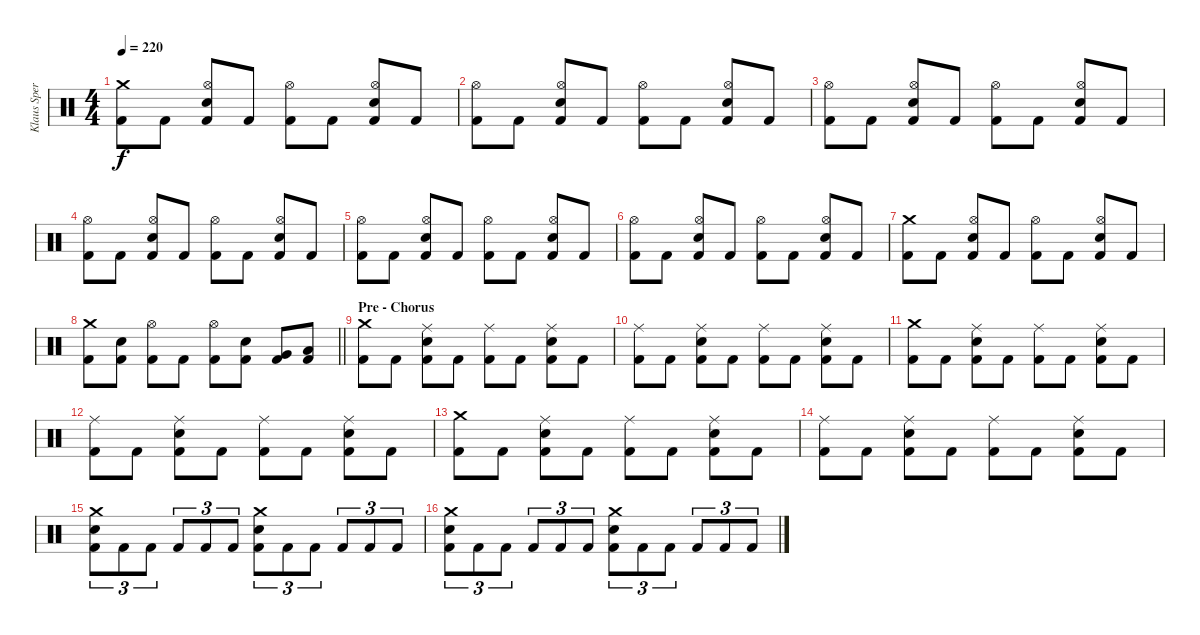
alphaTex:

\track ("Klaus Sperling" "Klaus Sper") {instrument percussion}
\staff {score}
\articulation defaults
\ts (4 4)
\tempo 220
\clef neutral
\ks c
("Crash medium (hit)" "Kick (hit) 2").8{dy f} "Kick (hit) 2".8 ("Hi-Hat (open)" "Electric Snare (hit)" "Kick (hit) 2").8 "Kick (hit) 2".8 ("Hi-Hat (open)" "Kick (hit) 2").8 "Kick (hit) 2".8 ("Hi-Hat (open)" "Electric Snare (hit)" "Kick (hit) 2").8 "Kick (hit) 2".8 |
("Hi-Hat (open)" "Kick (hit) 2").8 "Kick (hit) 2".8 ("Hi-Hat (open)" "Electric Snare (hit)" "Kick (hit) 2").8 "Kick (hit) 2".8 ("Hi-Hat (open)" "Kick (hit) 2").8 "Kick (hit) 2".8 ("Hi-Hat (open)" "Electric Snare (hit)" "Kick (hit) 2").8 "Kick (hit) 2".8 |
("Hi-Hat (open)" "Kick (hit) 2").8 "Kick (hit) 2".8 ("Hi-Hat (open)" "Electric Snare (hit)" "Kick (hit) 2").8 "Kick (hit) 2".8 ("Hi-Hat (open)" "Kick (hit) 2").8 "Kick (hit) 2".8 ("Hi-Hat (open)" "Electric Snare (hit)" "Kick (hit) 2").8 "Kick (hit) 2".8 |
("Hi-Hat (open)" "Kick (hit) 2").8 "Kick (hit) 2".8 ("Hi-Hat (open)" "Electric Snare (hit)" "Kick (hit) 2").8 "Kick (hit) 2".8 ("Hi-Hat (open)" "Kick (hit) 2").8 "Kick (hit) 2".8 ("Hi-Hat (open)" "Electric Snare (hit)" "Kick (hit) 2").8 "Kick (hit) 2".8 |
("Hi-Hat (open)" "Kick (hit) 2").8 "Kick (hit) 2".8 ("Hi-Hat (open)" "Electric Snare (hit)" "Kick (hit) 2").8 "Kick (hit) 2".8 ("Hi-Hat (open)" "Kick (hit) 2").8 "Kick (hit) 2".8 ("Hi-Hat (open)" "Electric Snare (hit)" "Kick (hit) 2").8 "Kick (hit) 2".8 |
("Hi-Hat (open)" "Kick (hit) 2").8 "Kick (hit) 2".8 ("Hi-Hat (open)" "Electric Snare (hit)" "Kick (hit) 2").8 "Kick (hit) 2".8 ("Hi-Hat (open)" "Kick (hit) 2").8 "Kick (hit) 2".8 ("Hi-Hat (open)" "Electric Snare (hit)" "Kick (hit) 2").8 "Kick (hit) 2".8 |
("Crash medium (hit)" "Kick (hit) 2").8 "Kick (hit) 2".8 ("Hi-Hat (open)" "Electric Snare (hit)" "Kick (hit) 2").8 "Kick (hit) 2".8 ("Hi-Hat (open)" "Kick (hit) 2").8 "Kick (hit) 2".8 ("Hi-Hat (open)" "Electric Snare (hit)" "Kick (hit) 2").8 "Kick (hit) 2".8 |
\barLineRight lightlight
("Crash medium (hit)" "Kick (hit) 2").8 ("Electric Snare (hit)" "Kick (hit) 2").8 ("Hi-Hat (open)" "Kick (hit) 2").8 "Kick (hit) 2".8 ("Hi-Hat (open)" "Kick (hit) 2").8 ("Electric Snare (hit)" "Kick (hit) 2").8 ("Very Low Tom (hit)" "Kick (hit) 2").8 ("Low Floor Tom (hit)" "Kick (hit) 2").8 |
\section ("" "Pre - Chorus")
("Crash medium (hit)" "Kick (hit) 2").8 "Kick (hit) 2".8 ("Ride (middle)" "Electric Snare (hit)" "Kick (hit) 2").8 "Kick (hit) 2".8 ("Ride (middle)" "Kick (hit) 2").8 "Kick (hit) 2".8 ("Ride (middle)" "Electric Snare (hit)" "Kick (hit) 2").8 "Kick (hit) 2".8 |
("Ride (middle)" "Kick (hit) 2").8 "Kick (hit) 2".8 ("Ride (middle)" "Electric Snare (hit)" "Kick (hit) 2").8 "Kick (hit) 2".8 ("Ride (middle)" "Kick (hit) 2").8 "Kick (hit) 2".8 ("Ride (middle)" "Electric Snare (hit)" "Kick (hit) 2").8 "Kick (hit) 2".8 |
("Crash medium (hit)" "Kick (hit) 2").8 "Kick (hit) 2".8 ("Ride (middle)" "Electric Snare (hit)" "Kick (hit) 2").8 "Kick (hit) 2".8 ("Ride (middle)" "Kick (hit) 2").8 "Kick (hit) 2".8 ("Ride (middle)" "Electric Snare (hit)" "Kick (hit) 2").8 "Kick (hit) 2".8 |
("Ride (middle)" "Kick (hit) 2").8 "Kick (hit) 2".8 ("Ride (middle)" "Electric Snare (hit)" "Kick (hit) 2").8 "Kick (hit) 2".8 ("Ride (middle)" "Kick (hit) 2").8 "Kick (hit) 2".8 ("Ride (middle)" "Electric Snare (hit)" "Kick (hit) 2").8 "Kick (hit) 2".8 |
("Crash medium (hit)" "Kick (hit) 2").8 "Kick (hit) 2".8 ("Ride (middle)" "Electric Snare (hit)" "Kick (hit) 2").8 "Kick (hit) 2".8 ("Ride (middle)" "Kick (hit) 2").8 "Kick (hit) 2".8 ("Ride (middle)" "Electric Snare (hit)" "Kick (hit) 2").8 "Kick (hit) 2".8 |
("Ride (middle)" "Kick (hit) 2").8 "Kick (hit) 2".8 ("Ride (middle)" "Electric Snare (hit)" "Kick (hit) 2").8 "Kick (hit) 2".8 ("Ride (middle)" "Kick (hit) 2").8 "Kick (hit) 2".8 ("Ride (middle)" "Electric Snare (hit)" "Kick (hit) 2").8 "Kick (hit) 2".8 |
("Crash medium (hit)" "Electric Snare (hit)" "Kick (hit) 2").8{tu (3 2)} "Kick (hit) 2".8{tu (3 2)} "Kick (hit) 2".8{tu (3 2)} "Kick (hit) 2".8{tu (3 2)} "Kick (hit) 2".8{tu (3 2)} "Kick (hit) 2".8{tu (3 2)} ("Crash medium (hit)" "Electric Snare (hit)" "Kick (hit) 2").8{tu (3 2)} "Kick (hit) 2".8{tu (3 2)} "Kick (hit) 2".8{tu (3 2)} "Kick (hit) 2".8{tu (3 2)} "Kick (hit) 2".8{tu (3 2)} "Kick (hit) 2".8{tu (3 2)} |
("Crash medium (hit)" "Electric Snare (hit)" "Kick (hit) 2").8{tu (3 2)} "Kick (hit) 2".8{tu (3 2)} "Kick (hit) 2".8{tu (3 2)} "Kick (hit) 2".8{tu (3 2)} "Kick (hit) 2".8{tu (3 2)} "Kick (hit) 2".8{tu (3 2)} ("Crash medium (hit)" "Electric Snare (hit)" "Kick (hit) 2").8{tu (3 2)} "Kick (hit) 2".8{tu (3 2)} "Kick (hit) 2".8{tu (3 2)} "Kick (hit) 2".8{tu (3 2)} "Kick (hit) 2".8{tu (3 2)} "Kick (hit) 2".8{tu (3 2)}
